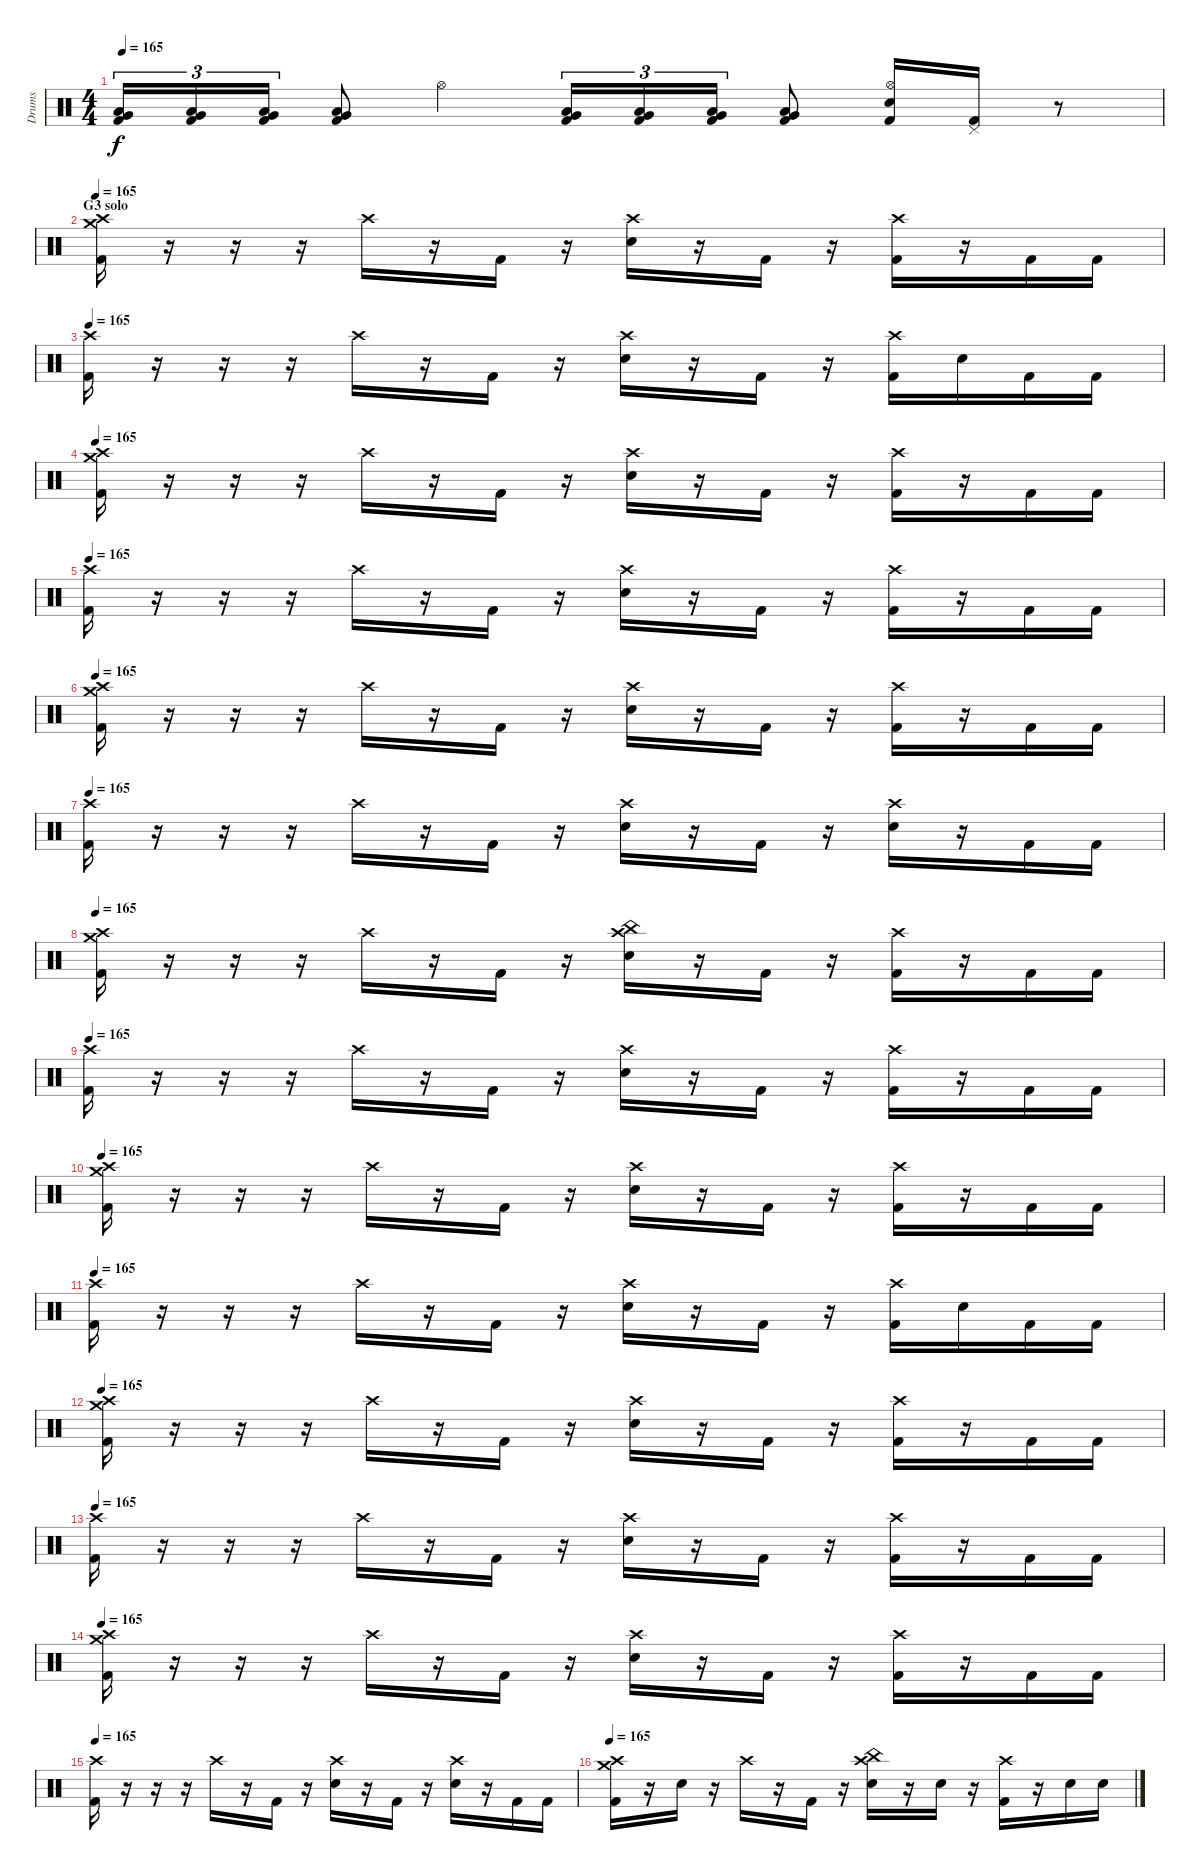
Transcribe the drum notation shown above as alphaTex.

\track ("Drums" "Drums") {instrument percussion}
\staff {score}
\articulation defaults
\ts (4 4)
\tempo 165
\clef neutral
\ks c
("Kick (hit) 2" "Very Low Tom (hit)" "Low Floor Tom (hit)").16{tu (3 2) dy f} ("Kick (hit) 2" "Very Low Tom (hit)" "Low Floor Tom (hit)").16{tu (3 2)} ("Kick (hit) 2" "Very Low Tom (hit)" "Low Floor Tom (hit)").16{tu (3 2)} ("Kick (hit) 2" "Very Low Tom (hit)" "Low Floor Tom (hit)").8 "Hi-Hat (open)".4 ("Kick (hit) 2" "Very Low Tom (hit)" "Low Floor Tom (hit)").16{tu (3 2)} ("Kick (hit) 2" "Very Low Tom (hit)" "Low Floor Tom (hit)").16{tu (3 2)} ("Kick (hit) 2" "Very Low Tom (hit)" "Low Floor Tom (hit)").16{tu (3 2)} ("Kick (hit) 2" "Very Low Tom (hit)" "Low Floor Tom (hit)").8 ("Hi-Hat (open)" "Electric Snare (hit)" "Kick (hit) 2").16 ("Pedal Hi-Hat (hit)" "Kick (hit) 2").16 r.8 |
\section ("" "G3 solo")
\tempo 165
("Crash medium (hit)" "Crash high (hit)" "Kick (hit) 2").16 r.16 r.16 r.16 "Crash high (hit)".16 r.16 "Kick (hit) 2".16 r.16 ("Crash high (hit)" "Electric Snare (hit)").16 r.16 "Kick (hit) 2".16 r.16 ("Crash high (hit)" "Kick (hit) 2").16 r.16 "Kick (hit) 2".16 "Kick (hit) 2".16 |
\tempo 165
("Crash high (hit)" "Kick (hit) 2").16 r.16 r.16 r.16 "Crash high (hit)".16 r.16 "Kick (hit) 2".16 r.16 ("Crash high (hit)" "Electric Snare (hit)").16 r.16 "Kick (hit) 2".16 r.16 ("Crash high (hit)" "Kick (hit) 2").16 "Electric Snare (hit)".16 "Kick (hit) 2".16 "Kick (hit) 2".16 |
\tempo 165
("Crash medium (hit)" "Crash high (hit)" "Kick (hit) 2").16 r.16 r.16 r.16 "Crash high (hit)".16 r.16 "Kick (hit) 2".16 r.16 ("Crash high (hit)" "Electric Snare (hit)").16 r.16 "Kick (hit) 2".16 r.16 ("Crash high (hit)" "Kick (hit) 2").16 r.16 "Kick (hit) 2".16 "Kick (hit) 2".16 |
\tempo 165
("Crash high (hit)" "Kick (hit) 2").16 r.16 r.16 r.16 "Crash high (hit)".16 r.16 "Kick (hit) 2".16 r.16 ("Crash high (hit)" "Electric Snare (hit)").16 r.16 "Kick (hit) 2".16 r.16 ("Crash high (hit)" "Kick (hit) 2").16 r.16 "Kick (hit) 2".16 "Kick (hit) 2".16 |
\tempo 165
("Crash medium (hit)" "Crash high (hit)" "Kick (hit) 2").16 r.16 r.16 r.16 "Crash high (hit)".16 r.16 "Kick (hit) 2".16 r.16 ("Crash high (hit)" "Electric Snare (hit)").16 r.16 "Kick (hit) 2".16 r.16 ("Crash high (hit)" "Kick (hit) 2").16 r.16 "Kick (hit) 2".16 "Kick (hit) 2".16 |
\tempo 165
("Crash high (hit)" "Kick (hit) 2").16 r.16 r.16 r.16 "Crash high (hit)".16 r.16 "Kick (hit) 2".16 r.16 ("Crash high (hit)" "Electric Snare (hit)").16 r.16 "Kick (hit) 2".16 r.16 ("Crash high (hit)" "Electric Snare (hit)").16 r.16 "Kick (hit) 2".16 "Kick (hit) 2".16 |
\tempo 165
("Crash medium (hit)" "Crash high (hit)" "Kick (hit) 2").16 r.16 r.16 r.16 "Crash high (hit)".16 r.16 "Kick (hit) 2".16 r.16 ("China (hit)" "Crash high (hit)" "Electric Snare (hit)").16 r.16 "Kick (hit) 2".16 r.16 ("Crash high (hit)" "Kick (hit) 2").16 r.16 "Kick (hit) 2".16 "Kick (hit) 2".16 |
\tempo 165
("Crash high (hit)" "Kick (hit) 2").16 r.16 r.16 r.16 "Crash high (hit)".16 r.16 "Kick (hit) 2".16 r.16 ("Crash high (hit)" "Electric Snare (hit)").16 r.16 "Kick (hit) 2".16 r.16 ("Crash high (hit)" "Kick (hit) 2").16 r.16 "Kick (hit) 2".16 "Kick (hit) 2".16 |
\tempo 165
("Crash medium (hit)" "Crash high (hit)" "Kick (hit) 2").16 r.16 r.16 r.16 "Crash high (hit)".16 r.16 "Kick (hit) 2".16 r.16 ("Crash high (hit)" "Electric Snare (hit)").16 r.16 "Kick (hit) 2".16 r.16 ("Crash high (hit)" "Kick (hit) 2").16 r.16 "Kick (hit) 2".16 "Kick (hit) 2".16 |
\tempo 165
("Crash high (hit)" "Kick (hit) 2").16 r.16 r.16 r.16 "Crash high (hit)".16 r.16 "Kick (hit) 2".16 r.16 ("Crash high (hit)" "Electric Snare (hit)").16 r.16 "Kick (hit) 2".16 r.16 ("Crash high (hit)" "Kick (hit) 2").16 "Electric Snare (hit)".16 "Kick (hit) 2".16 "Kick (hit) 2".16 |
\tempo 165
("Crash medium (hit)" "Crash high (hit)" "Kick (hit) 2").16 r.16 r.16 r.16 "Crash high (hit)".16 r.16 "Kick (hit) 2".16 r.16 ("Crash high (hit)" "Electric Snare (hit)").16 r.16 "Kick (hit) 2".16 r.16 ("Crash high (hit)" "Kick (hit) 2").16 r.16 "Kick (hit) 2".16 "Kick (hit) 2".16 |
\tempo 165
("Crash high (hit)" "Kick (hit) 2").16 r.16 r.16 r.16 "Crash high (hit)".16 r.16 "Kick (hit) 2".16 r.16 ("Crash high (hit)" "Electric Snare (hit)").16 r.16 "Kick (hit) 2".16 r.16 ("Crash high (hit)" "Kick (hit) 2").16 r.16 "Kick (hit) 2".16 "Kick (hit) 2".16 |
\tempo 165
("Crash medium (hit)" "Crash high (hit)" "Kick (hit) 2").16 r.16 r.16 r.16 "Crash high (hit)".16 r.16 "Kick (hit) 2".16 r.16 ("Crash high (hit)" "Electric Snare (hit)").16 r.16 "Kick (hit) 2".16 r.16 ("Crash high (hit)" "Kick (hit) 2").16 r.16 "Kick (hit) 2".16 "Kick (hit) 2".16 |
\tempo 165
("Crash high (hit)" "Kick (hit) 2").16 r.16 r.16 r.16 "Crash high (hit)".16 r.16 "Kick (hit) 2".16 r.16 ("Crash high (hit)" "Electric Snare (hit)").16 r.16 "Kick (hit) 2".16 r.16 ("Crash high (hit)" "Electric Snare (hit)").16 r.16 "Kick (hit) 2".16 "Kick (hit) 2".16 |
\tempo 165
("Crash medium (hit)" "Crash high (hit)" "Kick (hit) 2").16 r.16 "Electric Snare (hit)".16 r.16 "Crash high (hit)".16 r.16 "Kick (hit) 2".16 r.16 ("China (hit)" "Crash high (hit)" "Electric Snare (hit)").16 r.16 "Electric Snare (hit)".16 r.16 ("Crash high (hit)" "Kick (hit) 2").16 r.16 "Electric Snare (hit)".16 "Electric Snare (hit)".16
